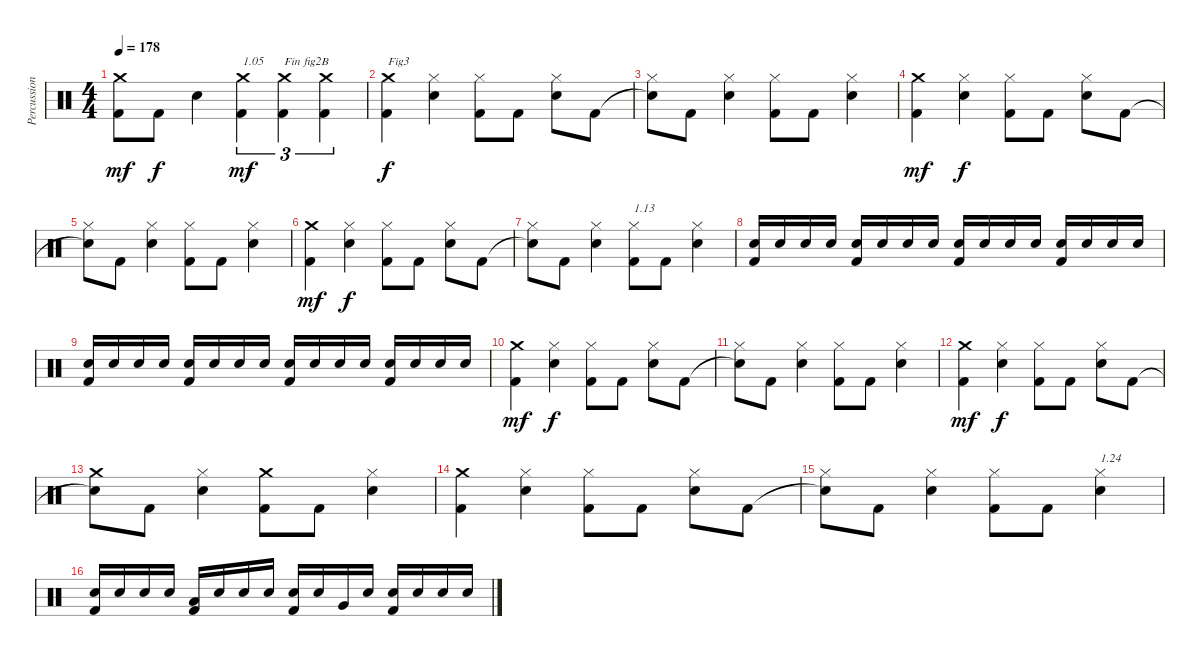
\track ("Percussions" "Percussion") {instrument percussion}
\staff {score}
\articulation defaults
\ts (4 4)
\tempo 178
\clef neutral
\ks c
("Kick (hit) 2" "Crash medium (hit)").8{dy mf} "Kick (hit) 2".8{dy f} "Electric Snare (hit)".4 ("Kick (hit) 2" "Crash medium (hit)").4{tu (3 2) txt "1.05" dy mf} ("Kick (hit) 2" "Crash medium (hit)").4{tu (3 2) txt "Fin fig2B"} ("Kick (hit) 2" "Crash medium (hit)").4{tu (3 2)} |
("Kick (hit) 2" "Crash medium (hit)").4{txt "Fig3" dy f} ("Electric Snare (hit)" "Hi-Hat (closed)").4 ("Kick (hit) 2" "Hi-Hat (closed)").8 "Kick (hit) 2".8 ("Electric Snare (hit)" "Hi-Hat (closed)").8 "Kick (hit) 2".8 |
("Snare (hit)"{t} "Hi-Hat (closed)").8 "Kick (hit) 2".8 ("Electric Snare (hit)" "Hi-Hat (closed)").4 ("Kick (hit) 2" "Hi-Hat (closed)").8 "Kick (hit) 2".8 ("Electric Snare (hit)" "Hi-Hat (closed)").4 |
("Kick (hit) 2" "Crash medium (hit)").4{dy mf} ("Electric Snare (hit)" "Hi-Hat (closed)").4{dy f} ("Kick (hit) 2" "Hi-Hat (closed)").8 "Kick (hit) 2".8 ("Electric Snare (hit)" "Hi-Hat (closed)").8 "Kick (hit) 2".8 |
("Snare (hit)"{t} "Hi-Hat (closed)").8 "Kick (hit) 2".8 ("Electric Snare (hit)" "Hi-Hat (closed)").4 ("Kick (hit) 2" "Hi-Hat (closed)").8 "Kick (hit) 2".8 ("Electric Snare (hit)" "Hi-Hat (closed)").4 |
("Kick (hit) 2" "Crash medium (hit)").4{dy mf} ("Electric Snare (hit)" "Hi-Hat (closed)").4{dy f} ("Kick (hit) 2" "Hi-Hat (closed)").8 "Kick (hit) 2".8 ("Electric Snare (hit)" "Hi-Hat (closed)").8 "Kick (hit) 2".8 |
("Snare (hit)"{t} "Hi-Hat (closed)").8 "Kick (hit) 2".8 ("Electric Snare (hit)" "Hi-Hat (closed)").4 ("Kick (hit) 2" "Hi-Hat (closed)").8{txt "1.13"} "Kick (hit) 2".8 ("Electric Snare (hit)" "Hi-Hat (closed)").4 |
("Kick (hit) 2" "Electric Snare (hit)").16 "Electric Snare (hit)".16 "Electric Snare (hit)".16 "Electric Snare (hit)".16 ("Kick (hit) 2" "Electric Snare (hit)").16 "Electric Snare (hit)".16 "Electric Snare (hit)".16 "Electric Snare (hit)".16 ("Kick (hit) 2" "Electric Snare (hit)").16 "Electric Snare (hit)".16 "Electric Snare (hit)".16 "Electric Snare (hit)".16 ("Kick (hit) 2" "Electric Snare (hit)").16 "Electric Snare (hit)".16 "Electric Snare (hit)".16 "Electric Snare (hit)".16 |
("Kick (hit) 2" "Electric Snare (hit)").16 "Electric Snare (hit)".16 "Electric Snare (hit)".16 "Electric Snare (hit)".16 ("Kick (hit) 2" "Electric Snare (hit)").16 "Electric Snare (hit)".16 "Electric Snare (hit)".16 "Electric Snare (hit)".16 ("Kick (hit) 2" "Electric Snare (hit)").16 "Electric Snare (hit)".16 "Electric Snare (hit)".16 "Electric Snare (hit)".16 ("Kick (hit) 2" "Electric Snare (hit)").16 "Electric Snare (hit)".16 "Electric Snare (hit)".16 "Electric Snare (hit)".16 |
("Kick (hit) 2" "Crash medium (hit)").4{dy mf} ("Electric Snare (hit)" "Hi-Hat (closed)").4{dy f} ("Kick (hit) 2" "Hi-Hat (closed)").8 "Kick (hit) 2".8 ("Electric Snare (hit)" "Hi-Hat (closed)").8 "Kick (hit) 2".8 |
("Snare (hit)"{t} "Hi-Hat (closed)").8 "Kick (hit) 2".8 ("Electric Snare (hit)" "Hi-Hat (closed)").4 ("Kick (hit) 2" "Hi-Hat (closed)").8 "Kick (hit) 2".8 ("Electric Snare (hit)" "Hi-Hat (closed)").4 |
("Kick (hit) 2" "Crash medium (hit)").4{dy mf} ("Electric Snare (hit)" "Hi-Hat (closed)").4{dy f} ("Kick (hit) 2" "Hi-Hat (closed)").8 "Kick (hit) 2".8 ("Electric Snare (hit)" "Hi-Hat (closed)").8 "Kick (hit) 2".8 |
("Snare (hit)"{t} "Crash medium (hit)").8 "Kick (hit) 2".8 ("Electric Snare (hit)" "Hi-Hat (closed)").4 ("Kick (hit) 2" "Crash medium (hit)").8 "Kick (hit) 2".8 ("Electric Snare (hit)" "Hi-Hat (closed)").4 |
("Kick (hit) 2" "Crash medium (hit)").4 ("Electric Snare (hit)" "Hi-Hat (closed)").4 ("Kick (hit) 2" "Hi-Hat (closed)").8 "Kick (hit) 2".8 ("Electric Snare (hit)" "Hi-Hat (closed)").8 "Kick (hit) 2".8 |
("Snare (hit)"{t} "Hi-Hat (closed)").8 "Kick (hit) 2".8 ("Electric Snare (hit)" "Hi-Hat (closed)").4 ("Kick (hit) 2" "Hi-Hat (closed)").8 "Kick (hit) 2".8 ("Electric Snare (hit)" "Hi-Hat (closed)").4{txt "1.24"} |
("Kick (hit) 2" "Electric Snare (hit)").16 "Electric Snare (hit)".16 "Electric Snare (hit)".16 "Electric Snare (hit)".16 ("Kick (hit) 2" "Low Tom (hit)").16 "Electric Snare (hit)".16 "Electric Snare (hit)".16 "Electric Snare (hit)".16 ("Kick (hit) 2" "Electric Snare (hit)").16 "Electric Snare (hit)".16 "Very Low Tom (hit)".16 "Electric Snare (hit)".16 ("Kick (hit) 2" "Electric Snare (hit)").16 "Electric Snare (hit)".16 "Electric Snare (hit)".16 "Electric Snare (hit)".16
